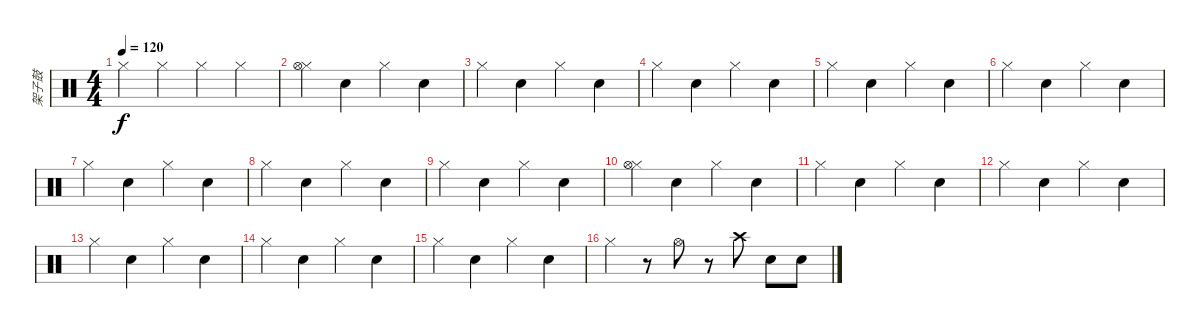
\track ("架子鼓" "架子鼓") {instrument percussion}
\staff {score}
\articulation defaults
\ts (4 4)
\tempo 120
\clef neutral
\ks c "Hi-Hat (closed)".4{dy f volume 12} "Hi-Hat (closed)".4 "Hi-Hat (closed)".4 "Hi-Hat (closed)".4
|
("Hi-Hat (closed)" "Hi-Hat (open)").4 "Snare (hit) 2".4 "Hi-Hat (closed)".4 "Snare (hit) 2".4 |
"Hi-Hat (closed)".4 "Snare (hit) 2".4 "Hi-Hat (closed)".4 "Snare (hit) 2".4 |
"Hi-Hat (closed)".4 "Snare (hit) 2".4 "Hi-Hat (closed)".4 "Snare (hit) 2".4 |
"Hi-Hat (closed)".4 "Snare (hit) 2".4 "Hi-Hat (closed)".4 "Snare (hit) 2".4 |
"Hi-Hat (closed)".4 "Snare (hit) 2".4 "Hi-Hat (closed)".4 "Snare (hit) 2".4 |
"Hi-Hat (closed)".4 "Snare (hit) 2".4 "Hi-Hat (closed)".4 "Snare (hit) 2".4 |
"Hi-Hat (closed)".4 "Snare (hit) 2".4 "Hi-Hat (closed)".4 "Snare (hit) 2".4 |
"Hi-Hat (closed)".4 "Snare (hit) 2".4 "Hi-Hat (closed)".4 "Snare (hit) 2".4 |
("Hi-Hat (closed)" "Hi-Hat (open)").4 "Snare (hit) 2".4 "Hi-Hat (closed)".4 "Snare (hit) 2".4 |
"Hi-Hat (closed)".4 "Snare (hit) 2".4 "Hi-Hat (closed)".4 "Snare (hit) 2".4 |
"Hi-Hat (closed)".4 "Snare (hit) 2".4 "Hi-Hat (closed)".4 "Snare (hit) 2".4 |
"Hi-Hat (closed)".4 "Snare (hit) 2".4 "Hi-Hat (closed)".4 "Snare (hit) 2".4 |
"Hi-Hat (closed)".4 "Snare (hit) 2".4 "Hi-Hat (closed)".4 "Snare (hit) 2".4 |
"Hi-Hat (closed)".4 "Snare (hit) 2".4 "Hi-Hat (closed)".4 "Snare (hit) 2".4 |
"Hi-Hat (closed)".4 r.8 "Hi-Hat (open)".8 r.8 "Crash high (hit)".8 "Snare (hit) 2".8 "Snare (hit) 2".8
